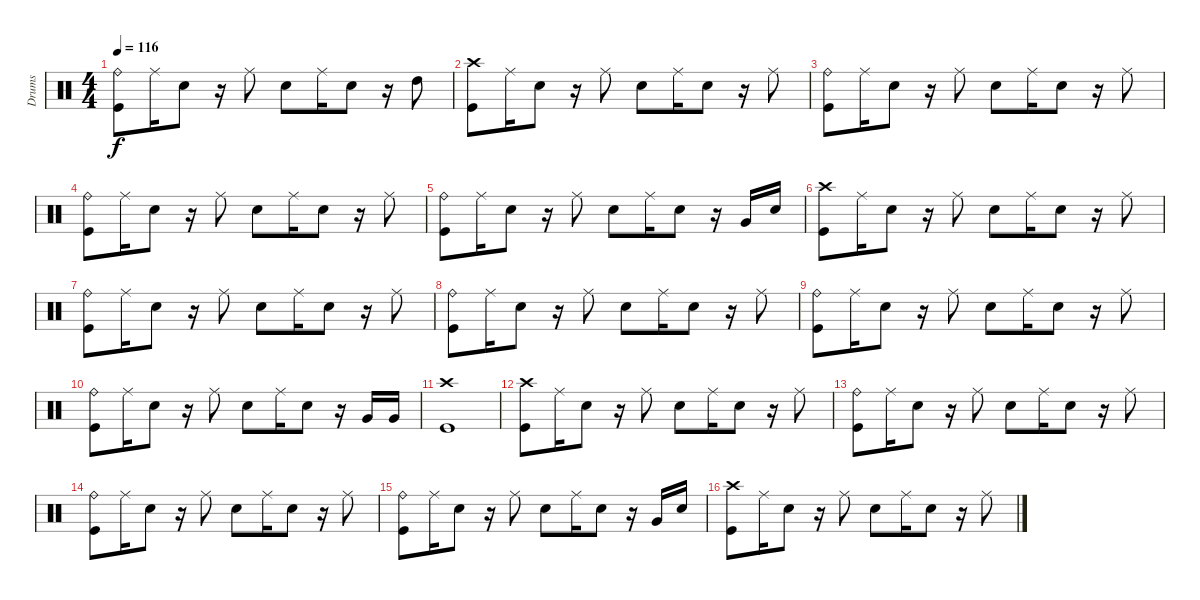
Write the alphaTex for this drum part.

\track ("Drums" "Drums") {instrument percussion}
\staff {score}
\articulation defaults
\ts (4 4)
\tempo 116
\clef neutral
\ks c
("Ride (bell)" "Kick (hit)").8{dy f} "Ride (middle)".16 "Snare (hit) 2".8 r.16 "Ride (middle)".8 "Snare (hit) 2".8 "Ride (middle)".16 "Snare (hit) 2".8 r.16 "High Tom (hit)".8 |
("Crash high (hit)" "Kick (hit)").8 "Ride (middle)".16 "Snare (hit) 2".8 r.16 "Ride (middle)".8 "Snare (hit) 2".8 "Ride (middle)".16 "Snare (hit) 2".8 r.16 "Ride (middle)".8 |
("Ride (bell)" "Kick (hit)").8 "Ride (middle)".16 "Snare (hit) 2".8 r.16 "Ride (middle)".8 "Snare (hit) 2".8 "Ride (middle)".16 "Snare (hit) 2".8 r.16 "Ride (middle)".8 |
("Ride (bell)" "Kick (hit)").8 "Ride (middle)".16 "Snare (hit) 2".8 r.16 "Ride (middle)".8 "Snare (hit) 2".8 "Ride (middle)".16 "Snare (hit) 2".8 r.16 "Ride (middle)".8 |
("Ride (bell)" "Kick (hit)").8 "Ride (middle)".16 "Snare (hit) 2".8 r.16 "Ride (middle)".8 "Snare (hit) 2".8 "Ride (middle)".16 "Snare (hit) 2".8 r.16 "Very Low Tom (hit)".16 "Snare (hit) 2".16 |
("Crash high (hit)" "Kick (hit)").8 "Ride (middle)".16 "Snare (hit) 2".8 r.16 "Ride (middle)".8 "Snare (hit) 2".8 "Ride (middle)".16 "Snare (hit) 2".8 r.16 "Ride (middle)".8 |
("Ride (bell)" "Kick (hit)").8 "Ride (middle)".16 "Snare (hit) 2".8 r.16 "Ride (middle)".8 "Snare (hit) 2".8 "Ride (middle)".16 "Snare (hit) 2".8 r.16 "Ride (middle)".8 |
("Ride (bell)" "Kick (hit)").8 "Ride (middle)".16 "Snare (hit) 2".8 r.16 "Ride (middle)".8 "Snare (hit) 2".8 "Ride (middle)".16 "Snare (hit) 2".8 r.16 "Ride (middle)".8 |
("Ride (bell)" "Kick (hit)").8 "Ride (middle)".16 "Snare (hit) 2".8 r.16 "Ride (middle)".8 "Snare (hit) 2".8 "Ride (middle)".16 "Snare (hit) 2".8 r.16 "Ride (middle)".8 |
("Ride (bell)" "Kick (hit)").8 "Ride (middle)".16 "Snare (hit) 2".8 r.16 "Ride (middle)".8 "Snare (hit) 2".8 "Ride (middle)".16 "Snare (hit) 2".8 r.16 "Very Low Tom (hit)".16 "Very Low Tom (hit)".16 |
("Crash high (hit)" "Kick (hit)").1 |
("Crash high (hit)" "Kick (hit)").8 "Ride (middle)".16 "Snare (hit) 2".8 r.16 "Ride (middle)".8 "Snare (hit) 2".8 "Ride (middle)".16 "Snare (hit) 2".8 r.16 "Ride (middle)".8 |
("Ride (bell)" "Kick (hit)").8 "Ride (middle)".16 "Snare (hit) 2".8 r.16 "Ride (middle)".8 "Snare (hit) 2".8 "Ride (middle)".16 "Snare (hit) 2".8 r.16 "Ride (middle)".8 |
("Ride (bell)" "Kick (hit)").8 "Ride (middle)".16 "Snare (hit) 2".8 r.16 "Ride (middle)".8 "Snare (hit) 2".8 "Ride (middle)".16 "Snare (hit) 2".8 r.16 "Ride (middle)".8 |
("Ride (bell)" "Kick (hit)").8 "Ride (middle)".16 "Snare (hit) 2".8 r.16 "Ride (middle)".8 "Snare (hit) 2".8 "Ride (middle)".16 "Snare (hit) 2".8 r.16 "Very Low Tom (hit)".16 "Snare (hit) 2".16 |
("Crash high (hit)" "Kick (hit)").8 "Ride (middle)".16 "Snare (hit) 2".8 r.16 "Ride (middle)".8 "Snare (hit) 2".8 "Ride (middle)".16 "Snare (hit) 2".8 r.16 "Ride (middle)".8
